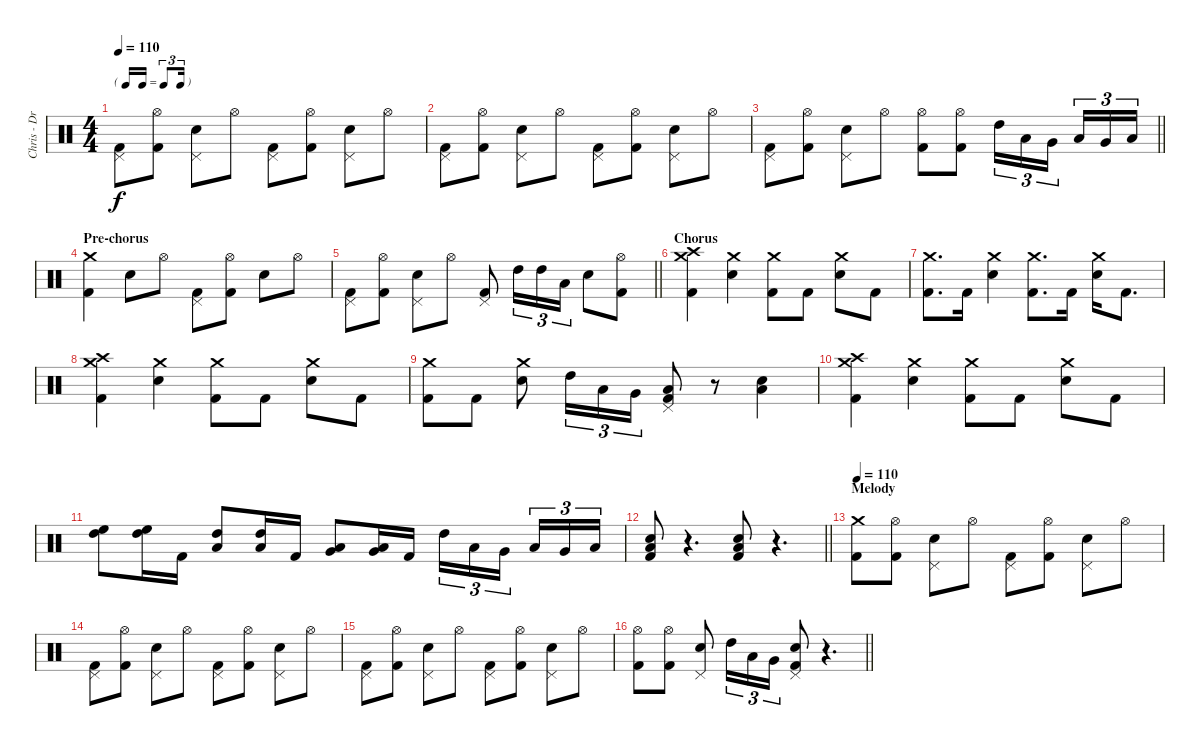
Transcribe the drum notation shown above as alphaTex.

\track ("Chris - Drums" "Chris - Dr") {instrument percussion}
\staff {score}
\articulation defaults
\ts (4 4)
\tf triplet16th
\tempo 110
\clef neutral
\ks c
("Pedal Hi-Hat (hit)" "Kick (hit) 2").8{dy f} ("Hi-Hat (open)" "Kick (hit) 2").8 ("Pedal Hi-Hat (hit)" "Electric Snare (hit)").8 "Hi-Hat (open)".8 ("Pedal Hi-Hat (hit)" "Kick (hit) 2").8 ("Hi-Hat (open)" "Kick (hit) 2").8 ("Pedal Hi-Hat (hit)" "Electric Snare (hit)").8 "Hi-Hat (open)".8 |
("Pedal Hi-Hat (hit)" "Kick (hit) 2").8 ("Hi-Hat (open)" "Kick (hit) 2").8 ("Pedal Hi-Hat (hit)" "Electric Snare (hit)").8 "Hi-Hat (open)".8 ("Pedal Hi-Hat (hit)" "Kick (hit) 2").8 ("Hi-Hat (open)" "Kick (hit) 2").8 ("Pedal Hi-Hat (hit)" "Electric Snare (hit)").8 "Hi-Hat (open)".8 |
\barLineRight lightlight
("Pedal Hi-Hat (hit)" "Kick (hit) 2").8 ("Hi-Hat (open)" "Kick (hit) 2").8 ("Pedal Hi-Hat (hit)" "Electric Snare (hit)").8 "Hi-Hat (open)".8 ("Hi-Hat (open)" "Kick (hit) 2").8 ("Hi-Hat (open)" "Kick (hit) 2").8 "High Tom (hit)".16{tu (3 2)} "Low Tom (hit)".16{tu (3 2)} "Very Low Tom (hit)".16{tu (3 2) beam splitsecondary} "Low Tom (hit)".16{tu (3 2)} "Very Low Tom (hit)".16{tu (3 2)} "Low Floor Tom (hit)".16{tu (3 2)} |
\section ("" "Pre-chorus")
("Crash medium (hit)" "Kick (hit) 2").4 "Electric Snare (hit)".8 "Hi-Hat (open)".8 ("Pedal Hi-Hat (hit)" "Kick (hit) 2").8 ("Hi-Hat (open)" "Kick (hit) 2").8 "Electric Snare (hit)".8 "Hi-Hat (open)".8 |
\barLineRight lightlight
("Pedal Hi-Hat (hit)" "Kick (hit) 2").8 ("Hi-Hat (open)" "Kick (hit) 2").8 ("Pedal Hi-Hat (hit)" "Electric Snare (hit)").8 "Hi-Hat (open)".8 ("Pedal Hi-Hat (hit)" "Kick (hit) 2").8 "High Tom (hit)".16{tu (3 2)} "High Tom (hit)".16{tu (3 2)} "Low Tom (hit)".16{tu (3 2)} "Electric Snare (hit)".8 ("Hi-Hat (open)" "Kick (hit) 2").8 |
\section ("" "Chorus")
("Crash medium (hit)" "Crash high (hit)" "Kick (hit) 2").4 ("Crash medium (hit)" "Electric Snare (hit)").4 ("Crash medium (hit)" "Kick (hit) 2").8 "Kick (hit) 2".8 ("Crash medium (hit)" "Electric Snare (hit)").8 "Kick (hit) 2".8 |
("Crash medium (hit)" "Kick (hit) 2").8{d} "Kick (hit) 2".16 ("Crash medium (hit)" "Electric Snare (hit)").4 ("Crash medium (hit)" "Kick (hit) 2").8{d} "Kick (hit) 2".16 ("Crash medium (hit)" "Electric Snare (hit)").16 "Kick (hit) 2".8{d} |
("Crash medium (hit)" "Crash high (hit)" "Kick (hit) 2").4 ("Crash medium (hit)" "Electric Snare (hit)").4 ("Crash medium (hit)" "Kick (hit) 2").8 "Kick (hit) 2".8 ("Crash medium (hit)" "Electric Snare (hit)").8 "Kick (hit) 2".8 |
("Crash medium (hit)" "Kick (hit) 2").8 "Kick (hit) 2".8 ("Crash medium (hit)" "Electric Snare (hit)").8 "High Tom (hit)".16{tu (3 2)} "Low Tom (hit)".16{tu (3 2)} "Very Low Tom (hit)".16{tu (3 2)} ("Pedal Hi-Hat (hit)" "Low Floor Tom (hit)" "Kick (hit) 2").8 r.8 ("Low Floor Tom (hit)" "Electric Snare (hit)").4 |
("Crash medium (hit)" "Crash high (hit)" "Kick (hit) 2").4 ("Crash medium (hit)" "Electric Snare (hit)").4 ("Crash medium (hit)" "Kick (hit) 2").8 "Kick (hit) 2".8 ("Crash medium (hit)" "Electric Snare (hit)").8 "Kick (hit) 2".8 |
("High Floor Tom (hit)" "High Tom (hit)").8 ("High Floor Tom (hit)" "High Tom (hit)").16 "Kick (hit) 2".16 ("High Tom (hit)" "Low Tom (hit)").8 ("High Tom (hit)" "Low Tom (hit)").16 "Kick (hit) 2".16 ("Low Tom (hit)" "Very Low Tom (hit)").8 ("Low Tom (hit)" "Very Low Tom (hit)").16 "Kick (hit) 2".16 "High Tom (hit)".16{tu (3 2)} "Low Tom (hit)".16{tu (3 2)} "Very Low Tom (hit)".16{tu (3 2) beam splitsecondary} "Low Tom (hit)".16{tu (3 2)} "Very Low Tom (hit)".16{tu (3 2)} "Low Floor Tom (hit)".16{tu (3 2)} |
\barLineRight lightlight
("Low Floor Tom (hit)" "Electric Snare (hit)" "Kick (hit) 2").8 r.4{d} ("Low Floor Tom (hit)" "Electric Snare (hit)" "Kick (hit) 2").8 r.4{d} |
\section ("" "Melody")
\tempo 110
("Crash medium (hit)" "Kick (hit) 2").8 ("Hi-Hat (open)" "Kick (hit) 2").8 ("Pedal Hi-Hat (hit)" "Electric Snare (hit)").8 "Hi-Hat (open)".8 ("Pedal Hi-Hat (hit)" "Kick (hit) 2").8 ("Hi-Hat (open)" "Kick (hit) 2").8 ("Pedal Hi-Hat (hit)" "Electric Snare (hit)").8 "Hi-Hat (open)".8 |
("Pedal Hi-Hat (hit)" "Kick (hit) 2").8 ("Hi-Hat (open)" "Kick (hit) 2").8 ("Pedal Hi-Hat (hit)" "Electric Snare (hit)").8 "Hi-Hat (open)".8 ("Pedal Hi-Hat (hit)" "Kick (hit) 2").8 ("Hi-Hat (open)" "Kick (hit) 2").8 ("Pedal Hi-Hat (hit)" "Electric Snare (hit)").8 "Hi-Hat (open)".8 |
("Pedal Hi-Hat (hit)" "Kick (hit) 2").8 ("Hi-Hat (open)" "Kick (hit) 2").8 ("Pedal Hi-Hat (hit)" "Electric Snare (hit)").8 "Hi-Hat (open)".8 ("Pedal Hi-Hat (hit)" "Kick (hit) 2").8 ("Hi-Hat (open)" "Kick (hit) 2").8 ("Pedal Hi-Hat (hit)" "Electric Snare (hit)").8 "Hi-Hat (open)".8 |
\barLineRight lightlight
("Hi-Hat (open)" "Kick (hit) 2").8 ("Hi-Hat (open)" "Kick (hit) 2").8 ("Pedal Hi-Hat (hit)" "Electric Snare (hit)").8 "High Tom (hit)".16{tu (3 2)} "Low Tom (hit)".16{tu (3 2)} "Very Low Tom (hit)".16{tu (3 2)} ("Pedal Hi-Hat (hit)" "Electric Snare (hit)" "Kick (hit) 2").8 r.4{d}
